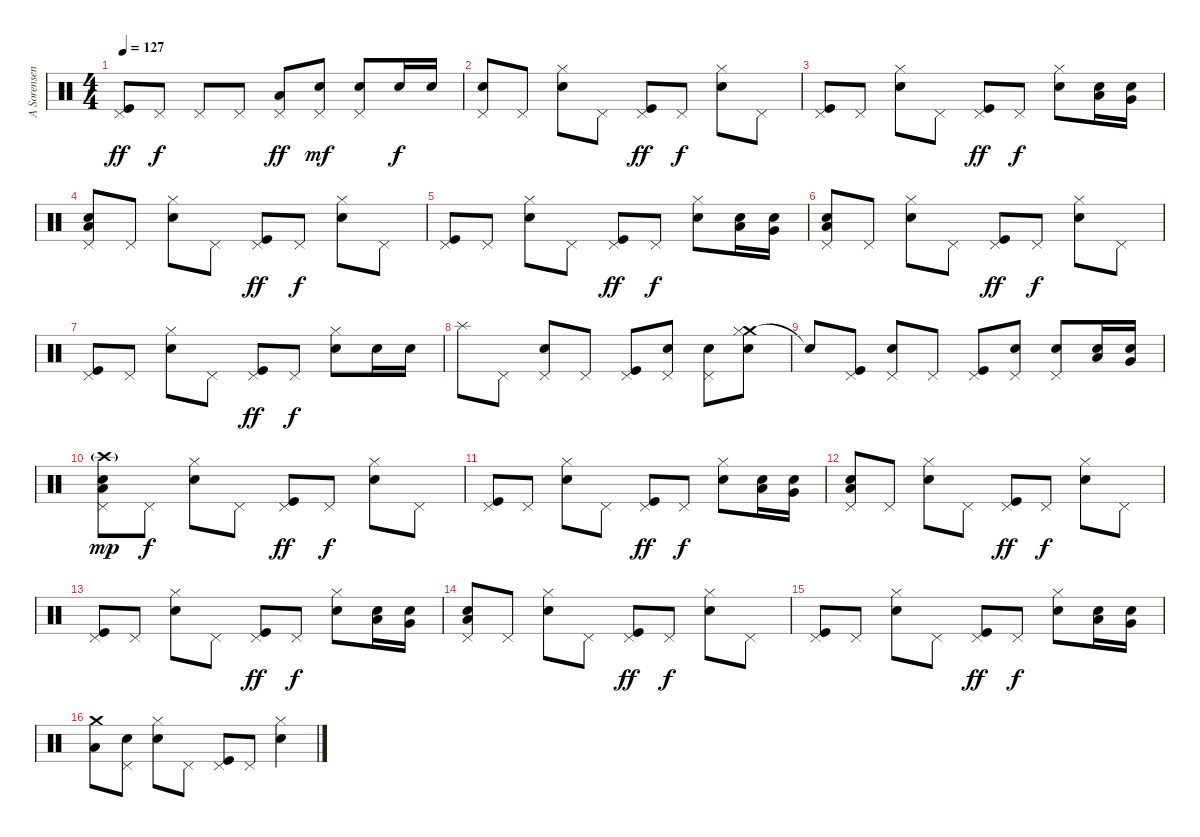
\track ("A Sorensen" "A Sorensen") {instrument percussion}
\staff {score}
\articulation defaults
\ts (4 4)
\tempo 127
\clef neutral
\ks c
("Pedal Hi-Hat (hit)" "Kick (hit)").8{dy ff} "Pedal Hi-Hat (hit)".8{dy f} "Pedal Hi-Hat (hit)".8 "Pedal Hi-Hat (hit)".8 ("Low Floor Tom (hit)" "Pedal Hi-Hat (hit)").8{dy ff} ("Pedal Hi-Hat (hit)" "Electric Snare (hit)").8{dy mf} ("Pedal Hi-Hat (hit)" "Electric Snare (hit)").8 "Snare (hit) 2".16{dy f} "Electric Snare (hit)".16 |
("Snare (hit) 2" "Pedal Hi-Hat (hit)").8 "Pedal Hi-Hat (hit)".8 ("Electric Snare (hit)" "Hi-Hat (closed)").8 "Pedal Hi-Hat (hit)".8 ("Pedal Hi-Hat (hit)" "Kick (hit)").8{dy ff} "Pedal Hi-Hat (hit)".8{dy f} ("Electric Snare (hit)" "Hi-Hat (closed)").8 "Pedal Hi-Hat (hit)".8 |
("Pedal Hi-Hat (hit)" "Kick (hit)").8 "Pedal Hi-Hat (hit)".8 ("Electric Snare (hit)" "Hi-Hat (closed)").8 "Pedal Hi-Hat (hit)".8 ("Pedal Hi-Hat (hit)" "Kick (hit)").8{dy ff} "Pedal Hi-Hat (hit)".8{dy f} ("Electric Snare (hit)" "Hi-Hat (closed)").8 ("Low Floor Tom (hit)" "Snare (hit) 2").16 ("Very Low Tom (hit)" "Electric Snare (hit)").16 |
("Low Floor Tom (hit)" "Snare (hit) 2" "Pedal Hi-Hat (hit)").8 "Pedal Hi-Hat (hit)".8 ("Electric Snare (hit)" "Hi-Hat (closed)").8 "Pedal Hi-Hat (hit)".8 ("Pedal Hi-Hat (hit)" "Kick (hit)").8{dy ff} "Pedal Hi-Hat (hit)".8{dy f} ("Electric Snare (hit)" "Hi-Hat (closed)").8 "Pedal Hi-Hat (hit)".8 |
("Pedal Hi-Hat (hit)" "Kick (hit)").8 "Pedal Hi-Hat (hit)".8 ("Electric Snare (hit)" "Hi-Hat (closed)").8 "Pedal Hi-Hat (hit)".8 ("Pedal Hi-Hat (hit)" "Kick (hit)").8{dy ff} "Pedal Hi-Hat (hit)".8{dy f} ("Electric Snare (hit)" "Hi-Hat (closed)").8 ("Low Floor Tom (hit)" "Snare (hit) 2").16 ("Very Low Tom (hit)" "Electric Snare (hit)").16 |
("Low Floor Tom (hit)" "Snare (hit) 2" "Pedal Hi-Hat (hit)").8 "Pedal Hi-Hat (hit)".8 ("Electric Snare (hit)" "Hi-Hat (closed)").8 "Pedal Hi-Hat (hit)".8 ("Pedal Hi-Hat (hit)" "Kick (hit)").8{dy ff} "Pedal Hi-Hat (hit)".8{dy f} ("Electric Snare (hit)" "Hi-Hat (closed)").8 "Pedal Hi-Hat (hit)".8 |
("Pedal Hi-Hat (hit)" "Kick (hit)").8 "Pedal Hi-Hat (hit)".8 ("Electric Snare (hit)" "Hi-Hat (closed)").8 "Pedal Hi-Hat (hit)".8 ("Pedal Hi-Hat (hit)" "Kick (hit)").8{dy ff} "Pedal Hi-Hat (hit)".8{dy f} ("Electric Snare (hit)" "Hi-Hat (closed)").8 "Snare (hit) 2".16 "Electric Snare (hit)".16 |
"Splash (hit)".8 "Pedal Hi-Hat (hit)".8 ("Electric Snare (hit)" "Pedal Hi-Hat (hit)").8 "Pedal Hi-Hat (hit)".8 ("Pedal Hi-Hat (hit)" "Kick (hit)").8 ("Snare (hit) 2" "Pedal Hi-Hat (hit)").8 ("Snare (hit) 2" "Pedal Hi-Hat (hit)").8 ("Crash medium (hit)" "Electric Snare (hit)" "Hi-Hat (closed)").8 |
"Snare (hit)"{t}.8 ("Pedal Hi-Hat (hit)" "Kick (hit)").8 ("Electric Snare (hit)" "Pedal Hi-Hat (hit)").8 "Pedal Hi-Hat (hit)".8 ("Pedal Hi-Hat (hit)" "Kick (hit)").8 ("Electric Snare (hit)" "Pedal Hi-Hat (hit)").8 ("Electric Snare (hit)" "Pedal Hi-Hat (hit)").8 ("Low Floor Tom (hit)" "Snare (hit) 2").16 ("Very Low Tom (hit)" "Electric Snare (hit)").16 |
("Crash high (hit)"{g} "Low Floor Tom (hit)" "Snare (hit) 2" "Pedal Hi-Hat (hit)").8{dy mp} "Pedal Hi-Hat (hit)".8{dy f} ("Electric Snare (hit)" "Hi-Hat (closed)").8 "Pedal Hi-Hat (hit)".8 ("Pedal Hi-Hat (hit)" "Kick (hit)").8{dy ff} "Pedal Hi-Hat (hit)".8{dy f} ("Electric Snare (hit)" "Hi-Hat (closed)").8 "Pedal Hi-Hat (hit)".8 |
("Pedal Hi-Hat (hit)" "Kick (hit)").8 "Pedal Hi-Hat (hit)".8 ("Electric Snare (hit)" "Hi-Hat (closed)").8 "Pedal Hi-Hat (hit)".8 ("Pedal Hi-Hat (hit)" "Kick (hit)").8{dy ff} "Pedal Hi-Hat (hit)".8{dy f} ("Electric Snare (hit)" "Hi-Hat (closed)").8 ("Low Floor Tom (hit)" "Snare (hit) 2").16 ("Very Low Tom (hit)" "Electric Snare (hit)").16 |
("Low Floor Tom (hit)" "Snare (hit) 2" "Pedal Hi-Hat (hit)").8 "Pedal Hi-Hat (hit)".8 ("Electric Snare (hit)" "Hi-Hat (closed)").8 "Pedal Hi-Hat (hit)".8 ("Pedal Hi-Hat (hit)" "Kick (hit)").8{dy ff} "Pedal Hi-Hat (hit)".8{dy f} ("Electric Snare (hit)" "Hi-Hat (closed)").8 "Pedal Hi-Hat (hit)".8 |
("Pedal Hi-Hat (hit)" "Kick (hit)").8 "Pedal Hi-Hat (hit)".8 ("Electric Snare (hit)" "Hi-Hat (closed)").8 "Pedal Hi-Hat (hit)".8 ("Pedal Hi-Hat (hit)" "Kick (hit)").8{dy ff} "Pedal Hi-Hat (hit)".8{dy f} ("Electric Snare (hit)" "Hi-Hat (closed)").8 ("Low Floor Tom (hit)" "Snare (hit) 2").16 ("Very Low Tom (hit)" "Electric Snare (hit)").16 |
("Low Floor Tom (hit)" "Snare (hit) 2" "Pedal Hi-Hat (hit)").8 "Pedal Hi-Hat (hit)".8 ("Electric Snare (hit)" "Hi-Hat (closed)").8 "Pedal Hi-Hat (hit)".8 ("Pedal Hi-Hat (hit)" "Kick (hit)").8{dy ff} "Pedal Hi-Hat (hit)".8{dy f} ("Electric Snare (hit)" "Hi-Hat (closed)").8 "Pedal Hi-Hat (hit)".8 |
("Pedal Hi-Hat (hit)" "Kick (hit)").8 "Pedal Hi-Hat (hit)".8 ("Electric Snare (hit)" "Hi-Hat (closed)").8 "Pedal Hi-Hat (hit)".8 ("Pedal Hi-Hat (hit)" "Kick (hit)").8{dy ff} "Pedal Hi-Hat (hit)".8{dy f} ("Electric Snare (hit)" "Hi-Hat (closed)").8 ("Low Floor Tom (hit)" "Snare (hit) 2").16 ("Very Low Tom (hit)" "Electric Snare (hit)").16 |
("Crash medium (hit)" "Low Floor Tom (hit)").8 ("Snare (hit) 2" "Pedal Hi-Hat (hit)").8 ("Electric Snare (hit)" "Hi-Hat (closed)").8 "Pedal Hi-Hat (hit)".8 ("Pedal Hi-Hat (hit)" "Kick (hit)").8 "Pedal Hi-Hat (hit)".8 ("Electric Snare (hit)" "Hi-Hat (closed)").4
